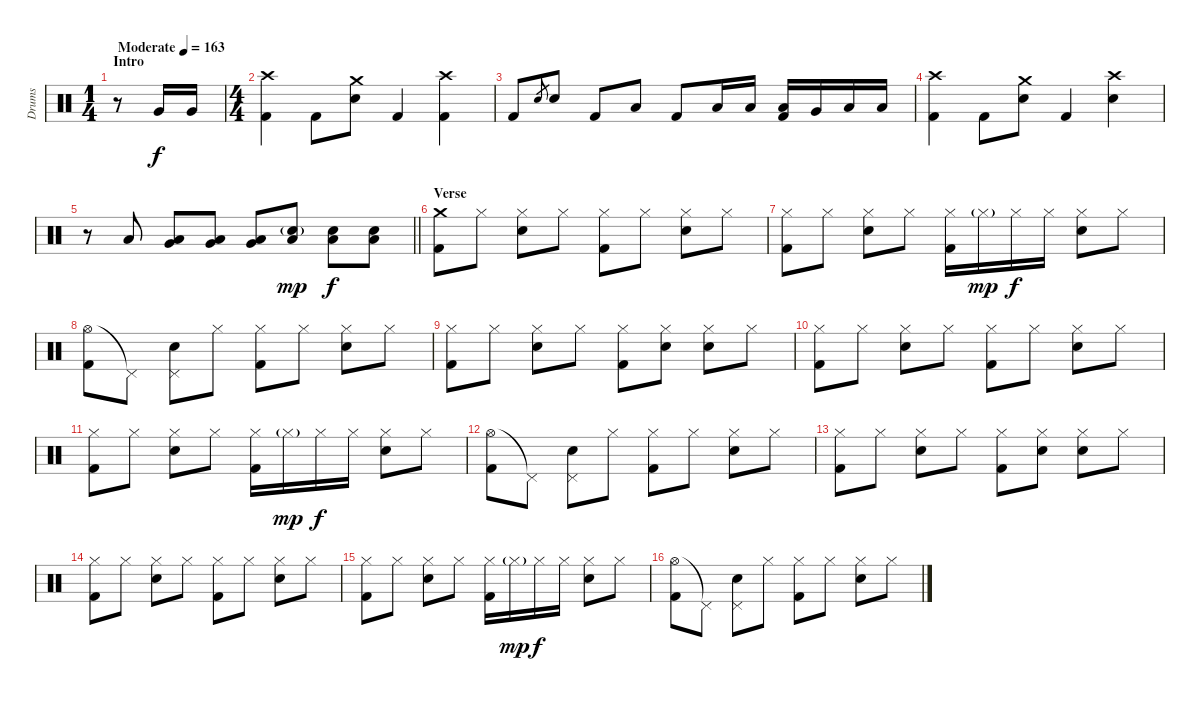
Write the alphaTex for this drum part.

\track ("Drums" "Drums") {instrument percussion}
\staff {score}
\articulation defaults
\ts (1 4)
\section ("" "Intro")
\tempo (163 "Moderate")
\clef neutral
\ks c
r.8{dy f} "Very Low Tom (hit)".16 "Very Low Tom (hit)".16 |
\ts (4 4)
("Crash high (hit)" "Kick (hit) 2").4 "Kick (hit) 2".8 ("Crash medium (hit)" "Electric Snare (hit)").8 "Kick (hit) 2".4 ("Crash high (hit)" "Kick (hit) 2").4 |
"Kick (hit) 2".8 "Electric Snare (hit)".8{gr} "Electric Snare (hit)".8 "Kick (hit) 2".8 "Low Tom (hit)".8 "Kick (hit) 2".8 "Low Tom (hit)".16 "Low Tom (hit)".16 ("Low Tom (hit)" "Kick (hit) 2").16 "Very Low Tom (hit)".16 "Low Floor Tom (hit)".16 "Low Floor Tom (hit)".16 |
("Crash high (hit)" "Kick (hit) 2").4 "Kick (hit) 2".8 ("Crash medium (hit)" "Electric Snare (hit)").8 "Kick (hit) 2".4 ("Crash high (hit)" "Electric Snare (hit)").4 |
\barLineRight lightlight
r.8 "Low Floor Tom (hit)".8 ("Very Low Tom (hit)" "Low Floor Tom (hit)").8 ("Low Tom (hit)" "Very Low Tom (hit)").8 ("Low Tom (hit)" "Very Low Tom (hit)").8 ("Electric Snare (hit)"{g} "Low Tom (hit)").8{dy mp} ("Electric Snare (hit)" "Low Tom (hit)").8{dy f} ("Electric Snare (hit)" "Low Tom (hit)").8 |
\section ("" "Verse")
("Crash medium (hit)" "Kick (hit) 2").8 "Hi-Hat (closed)".8 ("Hi-Hat (closed)" "Electric Snare (hit)").8 "Hi-Hat (closed)".8 ("Hi-Hat (closed)" "Kick (hit) 2").8 "Hi-Hat (closed)".8 ("Hi-Hat (closed)" "Electric Snare (hit)").8 "Hi-Hat (closed)".8 |
("Hi-Hat (closed)" "Kick (hit) 2").8 "Hi-Hat (closed)".8 ("Hi-Hat (closed)" "Electric Snare (hit)").8 "Hi-Hat (closed)".8 ("Hi-Hat (closed)" "Kick (hit) 2").16 "Hi-Hat (closed)"{g}.16{dy mp} "Hi-Hat (closed)".16{dy f} "Hi-Hat (closed)".16 ("Hi-Hat (closed)" "Electric Snare (hit)").8 "Hi-Hat (closed)".8 |
("Hi-Hat (open)" "Kick (hit) 2").8 "Pedal Hi-Hat (hit)"{t}.8 ("Pedal Hi-Hat (hit)" "Electric Snare (hit)").8 "Hi-Hat (closed)".8 ("Hi-Hat (closed)" "Kick (hit) 2").8 "Hi-Hat (closed)".8 ("Hi-Hat (closed)" "Electric Snare (hit)").8 "Hi-Hat (closed)".8 |
("Hi-Hat (closed)" "Kick (hit) 2").8 "Hi-Hat (closed)".8 ("Hi-Hat (closed)" "Electric Snare (hit)").8 "Hi-Hat (closed)".8 ("Hi-Hat (closed)" "Kick (hit) 2").8 ("Hi-Hat (closed)" "Electric Snare (hit)").8 ("Hi-Hat (closed)" "Electric Snare (hit)").8 "Hi-Hat (closed)".8 |
("Hi-Hat (closed)" "Kick (hit) 2").8 "Hi-Hat (closed)".8 ("Hi-Hat (closed)" "Electric Snare (hit)").8 "Hi-Hat (closed)".8 ("Hi-Hat (closed)" "Kick (hit) 2").8 "Hi-Hat (closed)".8 ("Hi-Hat (closed)" "Electric Snare (hit)").8 "Hi-Hat (closed)".8 |
("Hi-Hat (closed)" "Kick (hit) 2").8 "Hi-Hat (closed)".8 ("Hi-Hat (closed)" "Electric Snare (hit)").8 "Hi-Hat (closed)".8 ("Hi-Hat (closed)" "Kick (hit) 2").16 "Hi-Hat (closed)"{g}.16{dy mp} "Hi-Hat (closed)".16{dy f} "Hi-Hat (closed)".16 ("Hi-Hat (closed)" "Electric Snare (hit)").8 "Hi-Hat (closed)".8 |
("Hi-Hat (open)" "Kick (hit) 2").8 "Pedal Hi-Hat (hit)"{t}.8 ("Pedal Hi-Hat (hit)" "Electric Snare (hit)").8 "Hi-Hat (closed)".8 ("Hi-Hat (closed)" "Kick (hit) 2").8 "Hi-Hat (closed)".8 ("Hi-Hat (closed)" "Electric Snare (hit)").8 "Hi-Hat (closed)".8 |
("Hi-Hat (closed)" "Kick (hit) 2").8 "Hi-Hat (closed)".8 ("Hi-Hat (closed)" "Electric Snare (hit)").8 "Hi-Hat (closed)".8 ("Hi-Hat (closed)" "Kick (hit) 2").8 ("Hi-Hat (closed)" "Electric Snare (hit)").8 ("Hi-Hat (closed)" "Electric Snare (hit)").8 "Hi-Hat (closed)".8 |
("Hi-Hat (closed)" "Kick (hit) 2").8 "Hi-Hat (closed)".8 ("Hi-Hat (closed)" "Electric Snare (hit)").8 "Hi-Hat (closed)".8 ("Hi-Hat (closed)" "Kick (hit) 2").8 "Hi-Hat (closed)".8 ("Hi-Hat (closed)" "Electric Snare (hit)").8 "Hi-Hat (closed)".8 |
("Hi-Hat (closed)" "Kick (hit) 2").8 "Hi-Hat (closed)".8 ("Hi-Hat (closed)" "Electric Snare (hit)").8 "Hi-Hat (closed)".8 ("Hi-Hat (closed)" "Kick (hit) 2").16 "Hi-Hat (closed)"{g}.16{dy mp} "Hi-Hat (closed)".16{dy f} "Hi-Hat (closed)".16 ("Hi-Hat (closed)" "Electric Snare (hit)").8 "Hi-Hat (closed)".8 |
("Hi-Hat (open)" "Kick (hit) 2").8 "Pedal Hi-Hat (hit)"{t}.8 ("Pedal Hi-Hat (hit)" "Electric Snare (hit)").8 "Hi-Hat (closed)".8 ("Hi-Hat (closed)" "Kick (hit) 2").8 "Hi-Hat (closed)".8 ("Hi-Hat (closed)" "Electric Snare (hit)").8 "Hi-Hat (closed)".8
